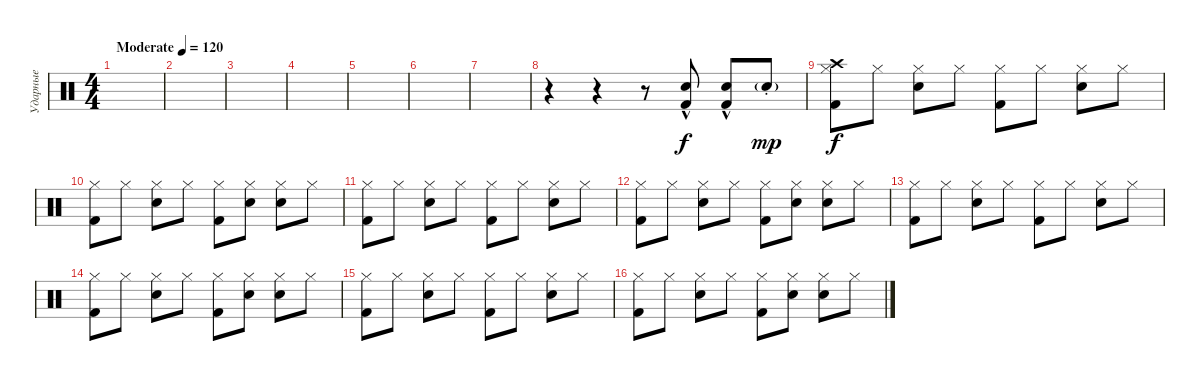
\track ("Ударные" "Ударные") {instrument percussion}
\staff
\articulation defaults
\ts (4 4)
\tempo (120 "Moderate")
\clef neutral
\ks c
|
|
|
|
|
|
|
r.4 r.4 r.8 ("Snare (hit) 2"{hac} "Kick (hit) 2").8 ("Snare (hit) 2" "Kick (hit) 2"{hac}).8 "Snare (hit) 2"{g st}.8{dy mp} |
("Hi-Hat (closed)" "Kick (hit) 2" "Crash high (hit)").8{dy f} "Hi-Hat (closed)".8 ("Hi-Hat (closed)" "Snare (hit) 2").8 "Hi-Hat (closed)".8 ("Hi-Hat (closed)" "Kick (hit) 2").8 "Hi-Hat (closed)".8 ("Hi-Hat (closed)" "Snare (hit) 2").8 "Hi-Hat (closed)".8 |
("Hi-Hat (closed)" "Kick (hit) 2").8 "Hi-Hat (closed)".8 ("Hi-Hat (closed)" "Snare (hit) 2").8 "Hi-Hat (closed)".8 ("Hi-Hat (closed)" "Kick (hit) 2").8 ("Hi-Hat (closed)" "Snare (hit) 2").8 ("Hi-Hat (closed)" "Snare (hit) 2").8 "Hi-Hat (closed)".8 |
("Hi-Hat (closed)" "Kick (hit) 2").8 "Hi-Hat (closed)".8 ("Hi-Hat (closed)" "Snare (hit) 2").8 "Hi-Hat (closed)".8 ("Hi-Hat (closed)" "Kick (hit) 2").8 "Hi-Hat (closed)".8 ("Hi-Hat (closed)" "Snare (hit) 2").8 "Hi-Hat (closed)".8 |
("Hi-Hat (closed)" "Kick (hit) 2").8 "Hi-Hat (closed)".8 ("Hi-Hat (closed)" "Snare (hit) 2").8 "Hi-Hat (closed)".8 ("Hi-Hat (closed)" "Kick (hit) 2").8 ("Hi-Hat (closed)" "Snare (hit) 2").8 ("Hi-Hat (closed)" "Snare (hit) 2").8 "Hi-Hat (closed)".8 |
("Hi-Hat (closed)" "Kick (hit) 2").8 "Hi-Hat (closed)".8 ("Hi-Hat (closed)" "Snare (hit) 2").8 "Hi-Hat (closed)".8 ("Hi-Hat (closed)" "Kick (hit) 2").8 "Hi-Hat (closed)".8 ("Hi-Hat (closed)" "Snare (hit) 2").8 "Hi-Hat (closed)".8 |
("Hi-Hat (closed)" "Kick (hit) 2").8 "Hi-Hat (closed)".8 ("Hi-Hat (closed)" "Snare (hit) 2").8 "Hi-Hat (closed)".8 ("Hi-Hat (closed)" "Kick (hit) 2").8 ("Hi-Hat (closed)" "Snare (hit) 2").8 ("Hi-Hat (closed)" "Snare (hit) 2").8 "Hi-Hat (closed)".8 |
("Hi-Hat (closed)" "Kick (hit) 2").8 "Hi-Hat (closed)".8 ("Hi-Hat (closed)" "Snare (hit) 2").8 "Hi-Hat (closed)".8 ("Hi-Hat (closed)" "Kick (hit) 2").8 "Hi-Hat (closed)".8 ("Hi-Hat (closed)" "Snare (hit) 2").8 "Hi-Hat (closed)".8 |
("Hi-Hat (closed)" "Kick (hit) 2").8 "Hi-Hat (closed)".8 ("Hi-Hat (closed)" "Snare (hit) 2").8 "Hi-Hat (closed)".8 ("Hi-Hat (closed)" "Kick (hit) 2").8 ("Hi-Hat (closed)" "Snare (hit) 2").8 ("Hi-Hat (closed)" "Snare (hit) 2").8 "Hi-Hat (closed)".8
